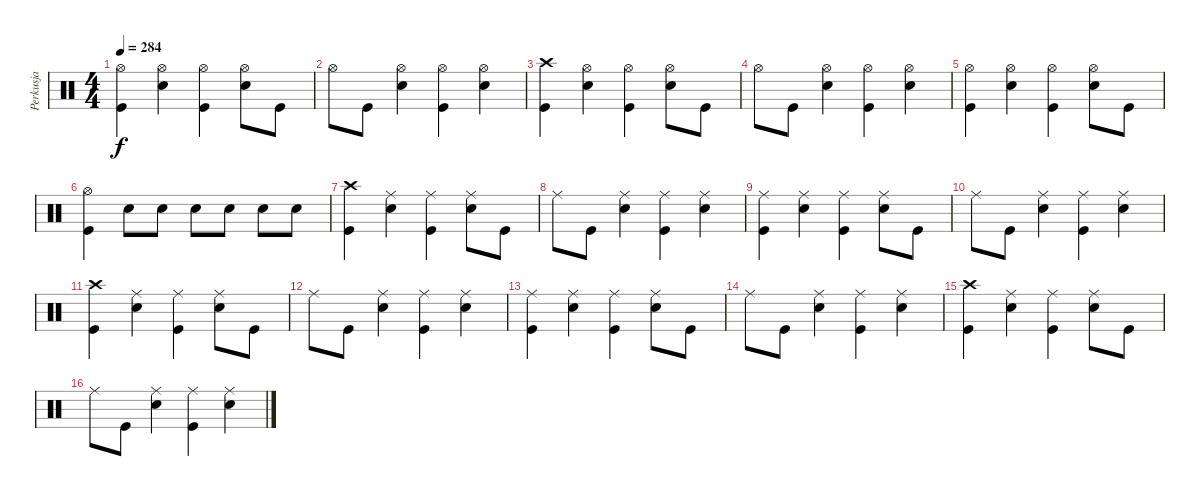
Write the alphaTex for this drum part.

\track ("Perkusja" "Perkusja") {instrument percussion}
\staff {score}
\articulation defaults
\ts (4 4)
\tempo 284
\clef neutral
\ks c
("Hi-Hat (open)" "Kick (hit)").4{dy f} ("Hi-Hat (open)" "Snare (hit) 2").4 ("Hi-Hat (open)" "Kick (hit)").4 ("Hi-Hat (open)" "Snare (hit) 2").8 "Kick (hit)".8 |
"Hi-Hat (open)".8 "Kick (hit)".8 ("Hi-Hat (open)" "Snare (hit) 2").4 ("Hi-Hat (open)" "Kick (hit)").4 ("Hi-Hat (open)" "Snare (hit) 2").4 |
("Kick (hit)" "Crash high (hit)").4 ("Hi-Hat (open)" "Snare (hit) 2").4 ("Hi-Hat (open)" "Kick (hit)").4 ("Hi-Hat (open)" "Snare (hit) 2").8 "Kick (hit)".8 |
"Hi-Hat (open)".8 "Kick (hit)".8 ("Hi-Hat (open)" "Snare (hit) 2").4 ("Hi-Hat (open)" "Kick (hit)").4 ("Hi-Hat (open)" "Snare (hit) 2").4 |
("Hi-Hat (open)" "Kick (hit)").4 ("Hi-Hat (open)" "Snare (hit) 2").4 ("Hi-Hat (open)" "Kick (hit)").4 ("Hi-Hat (open)" "Snare (hit) 2").8 "Kick (hit)".8 |
("Kick (hit)" "Hi-Hat (open)").4 "Snare (hit) 2".8 "Snare (hit) 2".8 "Snare (hit) 2".8 "Snare (hit) 2".8 "Snare (hit) 2".8 "Snare (hit) 2".8 |
("Kick (hit)" "Crash high (hit)").4 ("Ride (middle)" "Snare (hit) 2").4 ("Ride (middle)" "Kick (hit)").4 ("Ride (middle)" "Snare (hit) 2").8 "Kick (hit)".8 |
"Ride (middle)".8 "Kick (hit)".8 ("Ride (middle)" "Snare (hit) 2").4 ("Ride (middle)" "Kick (hit)").4 ("Ride (middle)" "Snare (hit) 2").4 |
("Ride (middle)" "Kick (hit)").4 ("Ride (middle)" "Snare (hit) 2").4 ("Ride (middle)" "Kick (hit)").4 ("Ride (middle)" "Snare (hit) 2").8 "Kick (hit)".8 |
"Ride (middle)".8 "Kick (hit)".8 ("Ride (middle)" "Snare (hit) 2").4 ("Ride (middle)" "Kick (hit)").4 ("Ride (middle)" "Snare (hit) 2").4 |
("Kick (hit)" "Crash high (hit)").4 ("Ride (middle)" "Snare (hit) 2").4 ("Ride (middle)" "Kick (hit)").4 ("Ride (middle)" "Snare (hit) 2").8 "Kick (hit)".8 |
"Ride (middle)".8 "Kick (hit)".8 ("Ride (middle)" "Snare (hit) 2").4 ("Ride (middle)" "Kick (hit)").4 ("Ride (middle)" "Snare (hit) 2").4 |
("Ride (middle)" "Kick (hit)").4 ("Ride (middle)" "Snare (hit) 2").4 ("Ride (middle)" "Kick (hit)").4 ("Ride (middle)" "Snare (hit) 2").8 "Kick (hit)".8 |
"Ride (middle)".8 "Kick (hit)".8 ("Ride (middle)" "Snare (hit) 2").4 ("Ride (middle)" "Kick (hit)").4 ("Ride (middle)" "Snare (hit) 2").4 |
("Kick (hit)" "Crash high (hit)").4 ("Ride (middle)" "Snare (hit) 2").4 ("Ride (middle)" "Kick (hit)").4 ("Ride (middle)" "Snare (hit) 2").8 "Kick (hit)".8 |
"Ride (middle)".8 "Kick (hit)".8 ("Ride (middle)" "Snare (hit) 2").4 ("Ride (middle)" "Kick (hit)").4 ("Ride (middle)" "Snare (hit) 2").4
